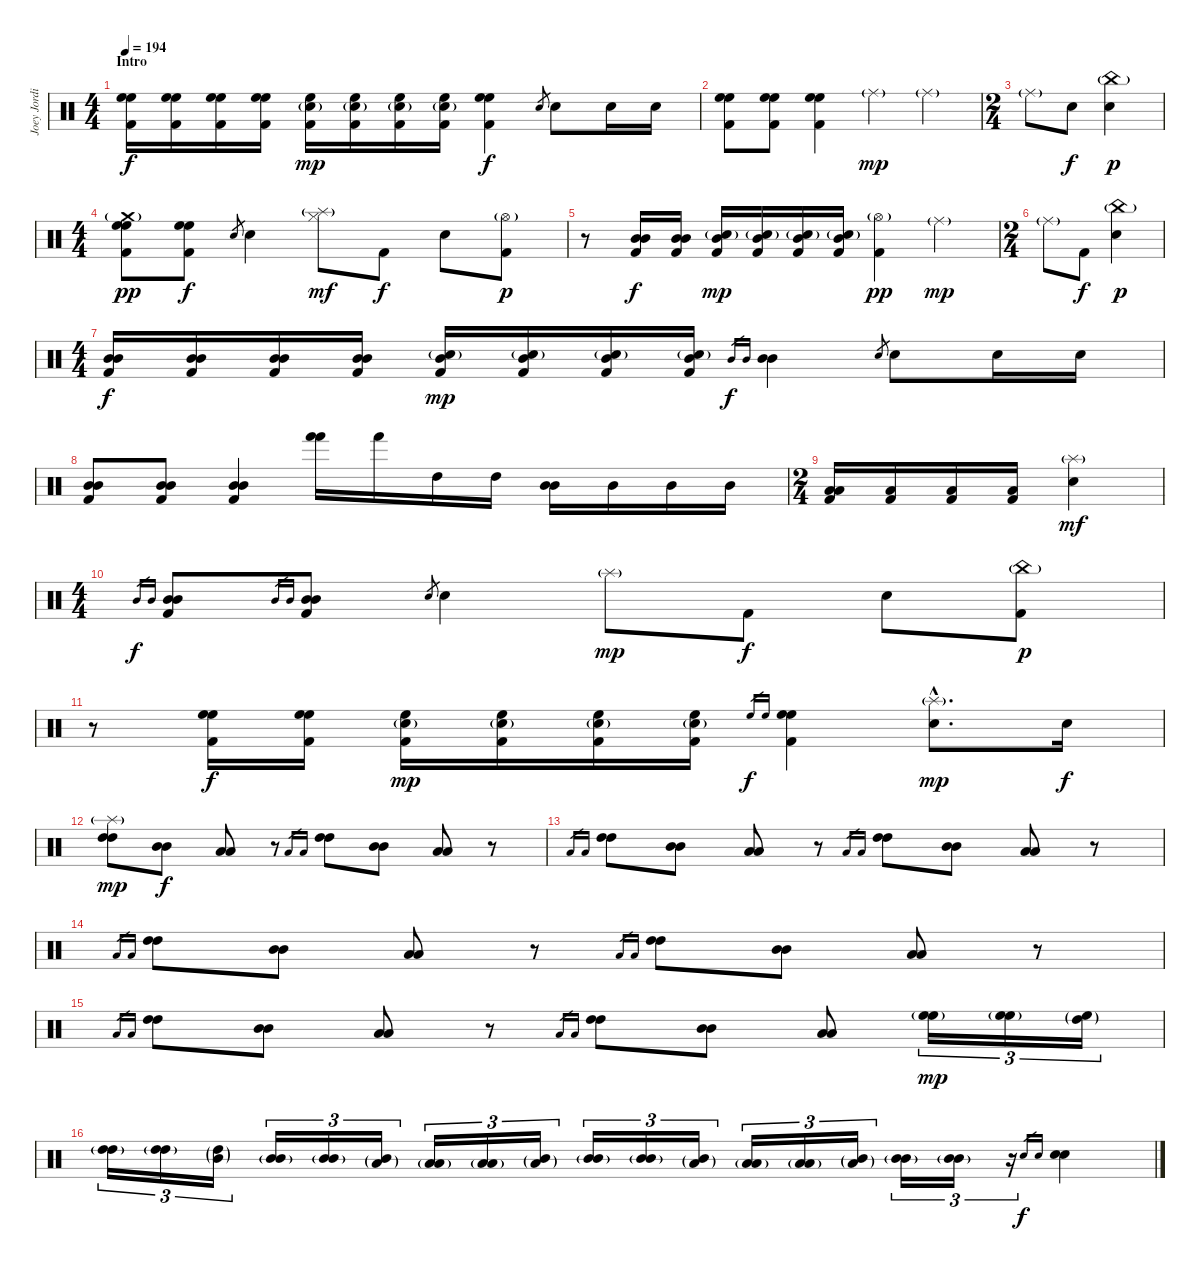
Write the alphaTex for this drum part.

\track ("Joey Jordison" "Joey Jordi") {instrument percussion}
\staff {score}
\articulation defaults
\ts (4 4)
\section ("" "Intro")
\tempo 194
\clef neutral
\ks c
("High Floor Tom (hit)" "High Floor Tom (hit)" "Kick (hit) 2").16{dy f} ("High Floor Tom (hit)" "High Floor Tom (hit)" "Kick (hit) 2").16 ("High Floor Tom (hit)" "High Floor Tom (hit)" "Kick (hit) 2").16 ("High Floor Tom (hit)" "High Floor Tom (hit)" "Kick (hit) 2").16 ("Snare (hit) 2"{g} "High Floor Tom (hit)" "Kick (hit) 2").16{dy mp} ("Snare (hit) 2"{g} "High Floor Tom (hit)" "Kick (hit) 2").16 ("Snare (hit) 2"{g} "High Floor Tom (hit)" "Kick (hit) 2").16 ("Snare (hit) 2"{g} "High Floor Tom (hit)" "Kick (hit) 2").16 ("High Floor Tom (hit)" "High Floor Tom (hit)" "Kick (hit) 2").4{dy f} "Snare (hit) 2".8{gr} "Snare (hit) 2".8 "Snare (hit) 2".16 "Snare (hit) 2".16 |
("High Floor Tom (hit)" "High Floor Tom (hit)" "Kick (hit) 2").8 ("High Floor Tom (hit)" "High Floor Tom (hit)" "Kick (hit) 2").8 ("High Floor Tom (hit)" "High Floor Tom (hit)" "Kick (hit) 2").4 "Ride (middle)"{g}.4{dy mp} "Ride (middle)"{g}.4 |
\ts (2 4)
"Ride (middle)"{g}.8 "Snare (hit) 2".8{dy f} ("China (hit)"{g} "Snare (hit) 2").4{dy p} |
\ts (4 4)
("Crash medium (hit)"{g} "High Floor Tom (hit)" "High Floor Tom (hit)" "Kick (hit) 2").8{dy pp} ("High Floor Tom (hit)" "High Floor Tom (hit)" "Kick (hit) 2").8{dy f} "Snare (hit) 2".8{gr} "Snare (hit) 2".4 ("Splash (hit)"{g} "Hi-Hat (closed)").8{dy mf} "Kick (hit) 2".8{dy f} "Snare (hit) 2".8 ("Hi-Hat (open)"{g} "Kick (hit) 2").8{dy p} |
r.8 ("Mid Tom (hit)" "Mid Tom (hit)" "Kick (hit) 2").16{dy f} ("Mid Tom (hit)" "Mid Tom (hit)" "Kick (hit) 2").16 ("Snare (hit) 2"{g} "Mid Tom (hit)" "Kick (hit) 2").16{dy mp} ("Snare (hit) 2"{g} "Mid Tom (hit)" "Kick (hit) 2").16 ("Snare (hit) 2"{g} "Mid Tom (hit)" "Kick (hit) 2").16 ("Snare (hit) 2"{g} "Mid Tom (hit)" "Kick (hit) 2").16 ("Hi-Hat (open)"{g} "Kick (hit) 2").4{dy pp} "Ride (middle)"{g}.4{dy mp} |
\ts (2 4)
"Ride (middle)"{g}.8 "Kick (hit) 2".8{dy f} ("China (hit)"{g} "Snare (hit) 2").4{dy p} |
\ts (4 4)
("Mid Tom (hit)" "Mid Tom (hit)" "Kick (hit) 2").16{dy f} ("Mid Tom (hit)" "Mid Tom (hit)" "Kick (hit) 2").16 ("Mid Tom (hit)" "Mid Tom (hit)" "Kick (hit) 2").16 ("Mid Tom (hit)" "Mid Tom (hit)" "Kick (hit) 2").16 ("Snare (hit) 2"{g} "Mid Tom (hit)" "Kick (hit) 2").16{dy mp} ("Snare (hit) 2"{g} "Mid Tom (hit)" "Kick (hit) 2").16 ("Snare (hit) 2"{g} "Mid Tom (hit)" "Kick (hit) 2").16 ("Snare (hit) 2"{g} "Mid Tom (hit)" "Kick (hit) 2").16 "Mid Tom (hit)".16{gr dy f} "Mid Tom (hit)".16{gr} ("Mid Tom (hit)" "Mid Tom (hit)").4 "Snare (hit) 2".8{gr} "Snare (hit) 2".8 "Snare (hit) 2".16 "Snare (hit) 2".16 |
("Mid Tom (hit)" "Mid Tom (hit)" "Kick (hit) 2").8 ("Mid Tom (hit)" "Mid Tom (hit)" "Kick (hit) 2").8 ("Mid Tom (hit)" "Mid Tom (hit)" "Kick (hit) 2").4 ("Hand (hit)" "Hand (hit)").16 "Hand (hit)".16 "High Tom (hit)".16 "High Tom (hit)".16 ("Mid Tom (hit)" "Mid Tom (hit)").16 "Mid Tom (hit)".16 "Mid Tom (hit)".16 "Mid Tom (hit)".16 |
\ts (2 4)
("Low Tom (hit)" "Low Tom (hit)" "Kick (hit) 2").16 ("Low Tom (hit)" "Kick (hit) 2").16 ("Low Tom (hit)" "Kick (hit) 2").16 ("Low Tom (hit)" "Kick (hit) 2").16 ("Splash (hit)"{g} "Snare (hit) 2").4{dy mf} |
\ts (4 4)
"Mid Tom (hit)".16{gr dy f} "Mid Tom (hit)".16{gr} ("Mid Tom (hit)" "Mid Tom (hit)" "Kick (hit) 2").8 "Mid Tom (hit)".16{gr} "Mid Tom (hit)".16{gr} ("Mid Tom (hit)" "Mid Tom (hit)" "Kick (hit) 2").8 "Snare (hit) 2".8{gr} "Snare (hit) 2".4 "Splash (hit)"{g}.8{dy mp} "Kick (hit) 2".8{dy f} "Snare (hit) 2".8 ("China (hit)"{g} "Kick (hit) 2").8{dy p} |
r.8 ("High Floor Tom (hit)" "High Floor Tom (hit)" "Kick (hit) 2").16{dy f} ("High Floor Tom (hit)" "High Floor Tom (hit)" "Kick (hit) 2").16 ("Snare (hit) 2"{g} "High Floor Tom (hit)" "Kick (hit) 2").16{dy mp} ("Snare (hit) 2"{g} "High Floor Tom (hit)" "Kick (hit) 2").16 ("Snare (hit) 2"{g} "High Floor Tom (hit)" "Kick (hit) 2").16 ("Snare (hit) 2"{g} "High Floor Tom (hit)" "Kick (hit) 2").16 "High Floor Tom (hit)".16{gr dy f} "High Floor Tom (hit)".16{gr} ("High Floor Tom (hit)" "High Floor Tom (hit)" "Kick (hit) 2").4 ("Splash (hit)"{g hac} "Snare (hit) 2"{hac}).8{d dy mp} "Snare (hit) 2".16{dy f} |
("Splash (hit)"{g} "High Tom (hit)" "High Tom (hit)").8{dy mp} ("Mid Tom (hit)" "Mid Tom (hit)").8{dy f} ("Low Tom (hit)" "Low Tom (hit)").8 r.8 "Low Tom (hit)".16{gr} "Low Tom (hit)".16{gr} ("High Tom (hit)" "High Tom (hit)").8 ("Mid Tom (hit)" "Mid Tom (hit)").8 ("Low Tom (hit)" "Low Tom (hit)").8 r.8 |
"Low Tom (hit)".16{gr} "Low Tom (hit)".16{gr} ("High Tom (hit)" "High Tom (hit)").8 ("Mid Tom (hit)" "Mid Tom (hit)").8 ("Low Tom (hit)" "Low Tom (hit)").8 r.8 "Low Tom (hit)".16{gr} "Low Tom (hit)".16{gr} ("High Tom (hit)" "High Tom (hit)").8 ("Mid Tom (hit)" "Mid Tom (hit)").8 ("Low Tom (hit)" "Low Tom (hit)").8 r.8 |
"Low Tom (hit)".16{gr} "Low Tom (hit)".16{gr} ("High Tom (hit)" "High Tom (hit)").8 ("Mid Tom (hit)" "Mid Tom (hit)").8 ("Low Tom (hit)" "Low Tom (hit)").8 r.8 "Low Tom (hit)".16{gr} "Low Tom (hit)".16{gr} ("High Tom (hit)" "High Tom (hit)").8 ("Mid Tom (hit)" "Mid Tom (hit)").8 ("Low Tom (hit)" "Low Tom (hit)").8 r.8 |
"Low Tom (hit)".16{gr} "Low Tom (hit)".16{gr} ("High Tom (hit)" "High Tom (hit)").8 ("Mid Tom (hit)" "Mid Tom (hit)").8 ("Low Tom (hit)" "Low Tom (hit)").8 r.8 "Low Tom (hit)".16{gr} "Low Tom (hit)".16{gr} ("High Tom (hit)" "High Tom (hit)").8 ("Mid Tom (hit)" "Mid Tom (hit)").8 ("Low Tom (hit)" "Low Tom (hit)").8 ("High Floor Tom (hit)"{g} "High Floor Tom (hit)"{g}).16{tu (3 2) dy mp} ("High Floor Tom (hit)"{g} "High Floor Tom (hit)"{g}).16{tu (3 2)} ("High Floor Tom (hit)"{g} "High Tom (hit)"{g}).16{tu (3 2)} |
("High Tom (hit)"{g} "High Tom (hit)"{g}).16{tu (3 2)} ("High Tom (hit)"{g} "High Tom (hit)"{g}).16{tu (3 2)} ("High Tom (hit)"{g} "Mid Tom (hit)"{g}).16{tu (3 2)} ("Mid Tom (hit)"{g} "Mid Tom (hit)"{g}).16{tu (3 2)} ("Mid Tom (hit)"{g} "Mid Tom (hit)"{g}).16{tu (3 2)} ("Mid Tom (hit)"{g} "Low Tom (hit)"{g}).16{tu (3 2)} ("Low Tom (hit)"{g} "Low Tom (hit)"{g}).16{tu (3 2)} ("Low Tom (hit)"{g} "Low Tom (hit)"{g}).16{tu (3 2)} ("Low Tom (hit)"{g} "Mid Tom (hit)"{g}).16{tu (3 2)} ("Mid Tom (hit)"{g} "Mid Tom (hit)"{g}).16{tu (3 2)} ("Mid Tom (hit)"{g} "Mid Tom (hit)"{g}).16{tu (3 2)} ("Mid Tom (hit)"{g} "Low Tom (hit)"{g}).16{tu (3 2)} ("Low Tom (hit)"{g} "Low Tom (hit)"{g}).16{tu (3 2)} ("Low Tom (hit)"{g} "Low Tom (hit)"{g}).16{tu (3 2)} ("Low Tom (hit)"{g} "Mid Tom (hit)"{g}).16{tu (3 2)} ("Mid Tom (hit)"{g} "Mid Tom (hit)"{g}).16{tu (3 2)} ("Mid Tom (hit)"{g} "Mid Tom (hit)"{g}).16{tu (3 2)} r.16{tu (3 2)} "Snare (hit) 2".16{gr dy f} "Snare (hit) 2".16{gr} ("Snare (hit) 2" "Snare (hit) 2").4
